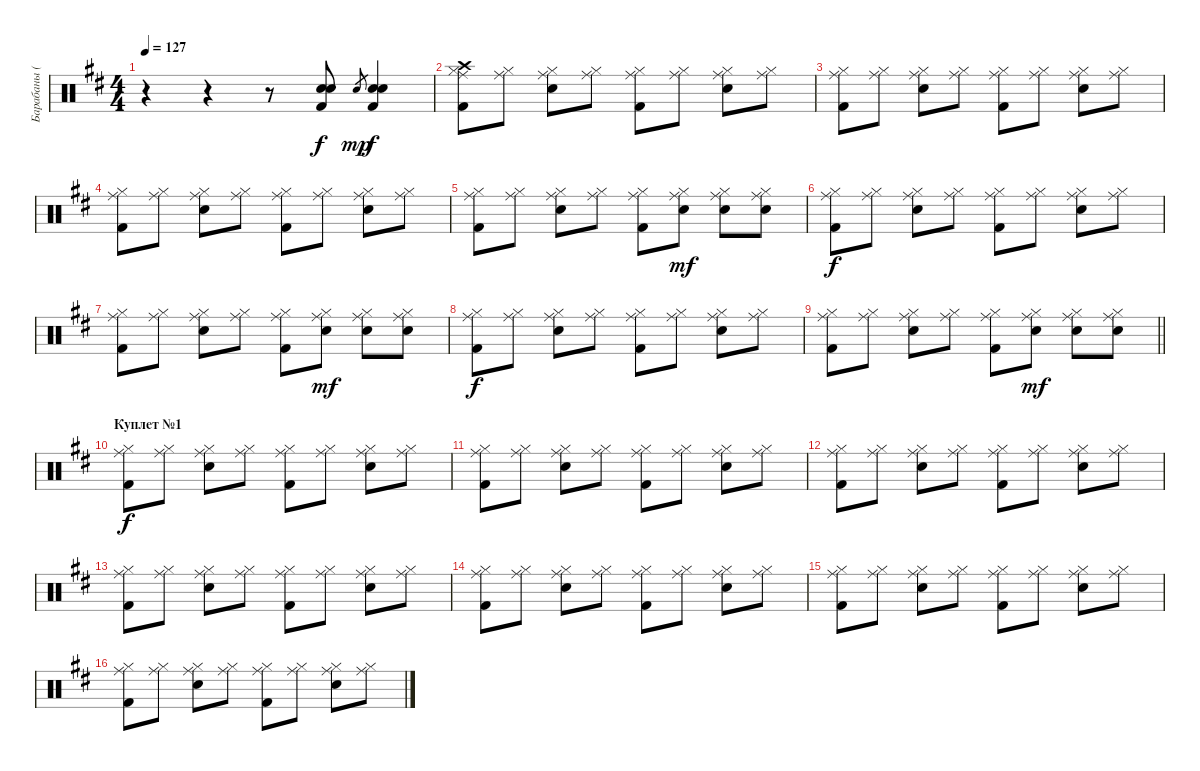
\track ("Барабаны (Е.Летов)" "Барабаны (") {instrument percussion}
\staff {score}
\articulation defaults
\ts (4 4)
\tempo 127
\clef neutral
\ks d
r.4{dy f} r.4 r.8 ("Kick (hit) 2" "Snare (hit) 2" "Electric Snare (hit)").8 "Electric Snare (hit)".8{gr dy mp} ("Kick (hit) 2" "Snare (hit) 2" "Electric Snare (hit)").4{dy f} |
("Kick (hit) 2" "Ride (middle)" "Hi-Hat (closed)" "Crash high (hit)").8 ("Ride (middle)" "Hi-Hat (closed)").8 ("Snare (hit) 2" "Ride (middle)" "Hi-Hat (closed)").8 ("Ride (middle)" "Hi-Hat (closed)").8 ("Kick (hit) 2" "Ride (middle)" "Hi-Hat (closed)").8 ("Ride (middle)" "Hi-Hat (closed)").8 ("Snare (hit) 2" "Ride (middle)" "Hi-Hat (closed)").8 ("Ride (middle)" "Hi-Hat (closed)").8 |
("Kick (hit) 2" "Ride (middle)" "Hi-Hat (closed)").8 ("Ride (middle)" "Hi-Hat (closed)").8 ("Snare (hit) 2" "Ride (middle)" "Hi-Hat (closed)").8 ("Ride (middle)" "Hi-Hat (closed)").8 ("Kick (hit) 2" "Ride (middle)" "Hi-Hat (closed)").8 ("Ride (middle)" "Hi-Hat (closed)").8 ("Snare (hit) 2" "Ride (middle)" "Hi-Hat (closed)").8 ("Ride (middle)" "Hi-Hat (closed)").8 |
("Kick (hit) 2" "Ride (middle)" "Hi-Hat (closed)").8 ("Ride (middle)" "Hi-Hat (closed)").8 ("Snare (hit) 2" "Ride (middle)" "Hi-Hat (closed)").8 ("Ride (middle)" "Hi-Hat (closed)").8 ("Kick (hit) 2" "Ride (middle)" "Hi-Hat (closed)").8 ("Ride (middle)" "Hi-Hat (closed)").8 ("Snare (hit) 2" "Ride (middle)" "Hi-Hat (closed)").8 ("Ride (middle)" "Hi-Hat (closed)").8 |
("Kick (hit) 2" "Ride (middle)" "Hi-Hat (closed)").8 ("Ride (middle)" "Hi-Hat (closed)").8 ("Snare (hit) 2" "Ride (middle)" "Hi-Hat (closed)").8 ("Ride (middle)" "Hi-Hat (closed)").8 ("Kick (hit) 2" "Ride (middle)" "Hi-Hat (closed)").8 ("Snare (hit) 2" "Ride (middle)" "Hi-Hat (closed)").8{dy mf} ("Snare (hit) 2" "Ride (middle)" "Hi-Hat (closed)").8 ("Snare (hit) 2" "Ride (middle)" "Hi-Hat (closed)").8 |
("Kick (hit) 2" "Ride (middle)" "Hi-Hat (closed)").8{dy f} ("Ride (middle)" "Hi-Hat (closed)").8 ("Snare (hit) 2" "Ride (middle)" "Hi-Hat (closed)").8 ("Ride (middle)" "Hi-Hat (closed)").8 ("Kick (hit) 2" "Ride (middle)" "Hi-Hat (closed)").8 ("Ride (middle)" "Hi-Hat (closed)").8 ("Snare (hit) 2" "Ride (middle)" "Hi-Hat (closed)").8 ("Ride (middle)" "Hi-Hat (closed)").8 |
("Kick (hit) 2" "Ride (middle)" "Hi-Hat (closed)").8 ("Ride (middle)" "Hi-Hat (closed)").8 ("Snare (hit) 2" "Ride (middle)" "Hi-Hat (closed)").8 ("Ride (middle)" "Hi-Hat (closed)").8 ("Kick (hit) 2" "Ride (middle)" "Hi-Hat (closed)").8 ("Snare (hit) 2" "Ride (middle)" "Hi-Hat (closed)").8{dy mf} ("Snare (hit) 2" "Ride (middle)" "Hi-Hat (closed)").8 ("Snare (hit) 2" "Ride (middle)" "Hi-Hat (closed)").8 |
("Kick (hit) 2" "Ride (middle)" "Hi-Hat (closed)").8{dy f} ("Ride (middle)" "Hi-Hat (closed)").8 ("Snare (hit) 2" "Ride (middle)" "Hi-Hat (closed)").8 ("Ride (middle)" "Hi-Hat (closed)").8 ("Kick (hit) 2" "Ride (middle)" "Hi-Hat (closed)").8 ("Ride (middle)" "Hi-Hat (closed)").8 ("Snare (hit) 2" "Ride (middle)" "Hi-Hat (closed)").8 ("Ride (middle)" "Hi-Hat (closed)").8 |
\barLineRight lightlight
("Kick (hit) 2" "Ride (middle)" "Hi-Hat (closed)").8 ("Ride (middle)" "Hi-Hat (closed)").8 ("Snare (hit) 2" "Ride (middle)" "Hi-Hat (closed)").8 ("Ride (middle)" "Hi-Hat (closed)").8 ("Kick (hit) 2" "Ride (middle)" "Hi-Hat (closed)").8 ("Snare (hit) 2" "Ride (middle)" "Hi-Hat (closed)").8{dy mf} ("Snare (hit) 2" "Ride (middle)" "Hi-Hat (closed)").8 ("Snare (hit) 2" "Ride (middle)" "Hi-Hat (closed)").8 |
\section ("" "Куплет №1")
("Kick (hit) 2" "Ride (middle)" "Hi-Hat (closed)").8{dy f} ("Ride (middle)" "Hi-Hat (closed)").8 ("Snare (hit) 2" "Ride (middle)" "Hi-Hat (closed)").8 ("Ride (middle)" "Hi-Hat (closed)").8 ("Kick (hit) 2" "Ride (middle)" "Hi-Hat (closed)").8 ("Ride (middle)" "Hi-Hat (closed)").8 ("Snare (hit) 2" "Ride (middle)" "Hi-Hat (closed)").8 ("Ride (middle)" "Hi-Hat (closed)").8 |
("Kick (hit) 2" "Ride (middle)" "Hi-Hat (closed)").8 ("Ride (middle)" "Hi-Hat (closed)").8 ("Snare (hit) 2" "Ride (middle)" "Hi-Hat (closed)").8 ("Ride (middle)" "Hi-Hat (closed)").8 ("Kick (hit) 2" "Ride (middle)" "Hi-Hat (closed)").8 ("Ride (middle)" "Hi-Hat (closed)").8 ("Snare (hit) 2" "Ride (middle)" "Hi-Hat (closed)").8 ("Ride (middle)" "Hi-Hat (closed)").8 |
("Kick (hit) 2" "Ride (middle)" "Hi-Hat (closed)").8 ("Ride (middle)" "Hi-Hat (closed)").8 ("Snare (hit) 2" "Ride (middle)" "Hi-Hat (closed)").8 ("Ride (middle)" "Hi-Hat (closed)").8 ("Kick (hit) 2" "Ride (middle)" "Hi-Hat (closed)").8 ("Ride (middle)" "Hi-Hat (closed)").8 ("Snare (hit) 2" "Ride (middle)" "Hi-Hat (closed)").8 ("Ride (middle)" "Hi-Hat (closed)").8 |
("Kick (hit) 2" "Ride (middle)" "Hi-Hat (closed)").8 ("Ride (middle)" "Hi-Hat (closed)").8 ("Snare (hit) 2" "Ride (middle)" "Hi-Hat (closed)").8 ("Ride (middle)" "Hi-Hat (closed)").8 ("Kick (hit) 2" "Ride (middle)" "Hi-Hat (closed)").8 ("Ride (middle)" "Hi-Hat (closed)").8 ("Snare (hit) 2" "Ride (middle)" "Hi-Hat (closed)").8 ("Ride (middle)" "Hi-Hat (closed)").8 |
("Kick (hit) 2" "Ride (middle)" "Hi-Hat (closed)").8 ("Ride (middle)" "Hi-Hat (closed)").8 ("Snare (hit) 2" "Ride (middle)" "Hi-Hat (closed)").8 ("Ride (middle)" "Hi-Hat (closed)").8 ("Kick (hit) 2" "Ride (middle)" "Hi-Hat (closed)").8 ("Ride (middle)" "Hi-Hat (closed)").8 ("Snare (hit) 2" "Ride (middle)" "Hi-Hat (closed)").8 ("Ride (middle)" "Hi-Hat (closed)").8 |
("Kick (hit) 2" "Ride (middle)" "Hi-Hat (closed)").8 ("Ride (middle)" "Hi-Hat (closed)").8 ("Snare (hit) 2" "Ride (middle)" "Hi-Hat (closed)").8 ("Ride (middle)" "Hi-Hat (closed)").8 ("Kick (hit) 2" "Ride (middle)" "Hi-Hat (closed)").8 ("Ride (middle)" "Hi-Hat (closed)").8 ("Snare (hit) 2" "Ride (middle)" "Hi-Hat (closed)").8 ("Ride (middle)" "Hi-Hat (closed)").8 |
("Kick (hit) 2" "Ride (middle)" "Hi-Hat (closed)").8 ("Ride (middle)" "Hi-Hat (closed)").8 ("Snare (hit) 2" "Ride (middle)" "Hi-Hat (closed)").8 ("Ride (middle)" "Hi-Hat (closed)").8 ("Kick (hit) 2" "Ride (middle)" "Hi-Hat (closed)").8 ("Ride (middle)" "Hi-Hat (closed)").8 ("Snare (hit) 2" "Ride (middle)" "Hi-Hat (closed)").8 ("Ride (middle)" "Hi-Hat (closed)").8
